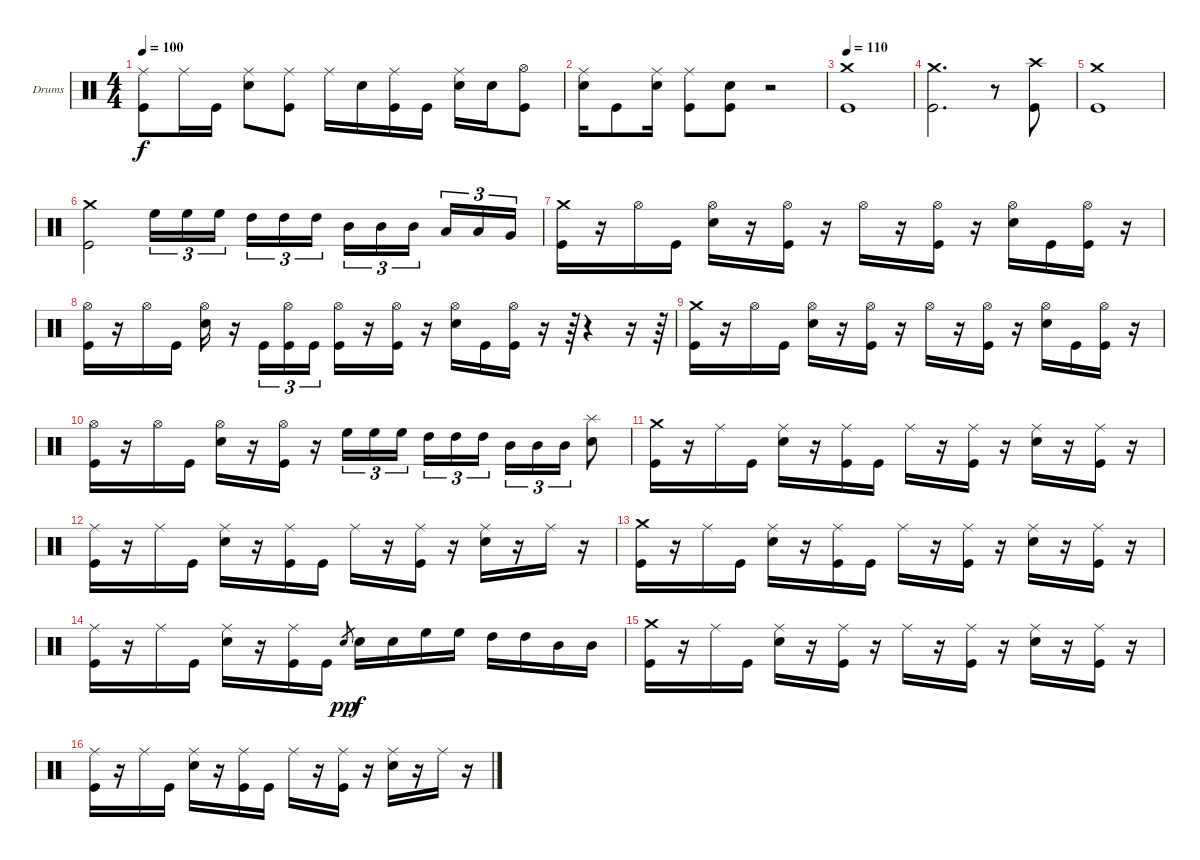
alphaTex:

\bracketExtendMode groupsimilarinstruments
\firstSystemTrackNameOrientation horizontal
\otherSystemsTrackNameOrientation horizontal
\track ("Nick Menza" "Drums") {instrument percussion}
\staff {score}
\articulation defaults
\ts (4 4)
\tempo 100
\clef neutral
\ks c
("Ride (middle)" "Kick (hit)").8{dy f} "Ride (middle)".16 "Kick (hit)".16 ("Ride (middle)" "Snare (hit) 2").8 ("Ride (middle)" "Kick (hit)").8 "Ride (middle)".16 "Snare (hit) 2".16 ("Ride (middle)" "Kick (hit)").16 "Kick (hit)".16 ("Ride (middle)" "Snare (hit) 2").16 "Snare (hit) 2".16 ("Hi-Hat (open)" "Kick (hit)").8 |
("Ride (middle)" "Snare (hit) 2").16 "Kick (hit)".8 ("Ride (middle)" "Snare (hit) 2").16 ("Ride (middle)" "Kick (hit)").8 ("Snare (hit) 2" "Kick (hit)").8 r.2 |
\tempo 110
("Crash medium (hit)" "Kick (hit)").1 |
("Crash medium (hit)" "Kick (hit)").2{d} r.8 ("Crash high (hit)" "Kick (hit)").8 |
("Crash medium (hit)" "Kick (hit)").1 |
("Crash medium (hit)" "Kick (hit)").2 "High Floor Tom (hit)".16{tu (3 2)} "High Floor Tom (hit)".16{tu (3 2)} "High Floor Tom (hit)".16{tu (3 2)} "High Tom (hit)".16{tu (3 2)} "High Tom (hit)".16{tu (3 2)} "High Tom (hit)".16{tu (3 2)} "Mid Tom (hit)".16{tu (3 2)} "Mid Tom (hit)".16{tu (3 2)} "Mid Tom (hit)".16{tu (3 2)} "Low Tom (hit)".16{tu (3 2)} "Low Tom (hit)".16{tu (3 2)} "Very Low Tom (hit)".16{tu (3 2)} |
("Crash medium (hit)" "Kick (hit)").16 r.16 "Hi-Hat (open)".16 "Kick (hit)".16 ("Hi-Hat (open)" "Snare (hit) 2").16 r.16 ("Hi-Hat (open)" "Kick (hit)").16 r.16 "Hi-Hat (open)".16 r.16 ("Hi-Hat (open)" "Kick (hit)").16 r.16 ("Hi-Hat (open)" "Snare (hit) 2").16 "Kick (hit)".16 ("Hi-Hat (open)" "Kick (hit)").16 r.16 |
("Hi-Hat (open)" "Kick (hit)").16 r.16 "Hi-Hat (open)".16 "Kick (hit)".16 ("Hi-Hat (open)" "Snare (hit) 2").16 r.16 "Kick (hit)".16{tu (3 2)} ("Hi-Hat (open)" "Kick (hit)").16{tu (3 2)} "Kick (hit)".16{tu (3 2)} ("Hi-Hat (open)" "Kick (hit)").16 r.16 ("Hi-Hat (open)" "Kick (hit)").16 r.16 ("Hi-Hat (open)" "Snare (hit) 2").16 "Kick (hit)".16 ("Hi-Hat (open)" "Kick (hit)").16 r.16 r.64 r.4 r.16 r.64 |
("Crash medium (hit)" "Kick (hit)").16 r.16 "Hi-Hat (open)".16 "Kick (hit)".16 ("Hi-Hat (open)" "Snare (hit) 2").16 r.16 ("Hi-Hat (open)" "Kick (hit)").16 r.16 "Hi-Hat (open)".16 r.16 ("Hi-Hat (open)" "Kick (hit)").16 r.16 ("Hi-Hat (open)" "Snare (hit) 2").16 "Kick (hit)".16 ("Hi-Hat (open)" "Kick (hit)").16 r.16 |
("Hi-Hat (open)" "Kick (hit)").16 r.16 "Hi-Hat (open)".16 "Kick (hit)".16 ("Hi-Hat (open)" "Snare (hit) 2").16 r.16 ("Hi-Hat (open)" "Kick (hit)").16 r.16 "High Floor Tom (hit)".16{tu (3 2)} "High Floor Tom (hit)".16{tu (3 2)} "High Floor Tom (hit)".16{tu (3 2)} "High Tom (hit)".16{tu (3 2)} "High Tom (hit)".16{tu (3 2)} "High Tom (hit)".16{tu (3 2)} "Mid Tom (hit)".16{tu (3 2)} "Mid Tom (hit)".16{tu (3 2)} "Mid Tom (hit)".16{tu (3 2)} ("Splash (hit)" "Snare (hit) 2").8 |
("Crash medium (hit)" "Kick (hit)").16 r.16 "Ride (middle)".16 "Kick (hit)".16 ("Ride (middle)" "Snare (hit) 2").16 r.16 ("Ride (middle)" "Kick (hit)").16 "Kick (hit)".16 "Ride (middle)".16 r.16 ("Ride (middle)" "Kick (hit)").16 r.16 ("Ride (middle)" "Snare (hit) 2").16 r.16 ("Ride (middle)" "Kick (hit)").16 r.16 |
("Ride (middle)" "Kick (hit)").16 r.16 "Ride (middle)".16 "Kick (hit)".16 ("Ride (middle)" "Snare (hit) 2").16 r.16 ("Ride (middle)" "Kick (hit)").16 "Kick (hit)".16 "Ride (middle)".16 r.16 ("Ride (middle)" "Kick (hit)").16 r.16 ("Ride (middle)" "Snare (hit) 2").16 r.16 "Ride (middle)".16 r.16 |
("Crash medium (hit)" "Kick (hit)").16 r.16 "Ride (middle)".16 "Kick (hit)".16 ("Ride (middle)" "Snare (hit) 2").16 r.16 ("Ride (middle)" "Kick (hit)").16 "Kick (hit)".16 "Ride (middle)".16 r.16 ("Ride (middle)" "Kick (hit)").16 r.16 ("Ride (middle)" "Snare (hit) 2").16 r.16 ("Ride (middle)" "Kick (hit)").16 r.16 |
("Ride (middle)" "Kick (hit)").16 r.16 "Ride (middle)".16 "Kick (hit)".16 ("Ride (middle)" "Snare (hit) 2").16 r.16 ("Ride (middle)" "Kick (hit)").16 "Kick (hit)".16 "Snare (hit) 2".8{gr dy pp} "Snare (hit) 2".16{dy f} "Snare (hit) 2".16 "High Floor Tom (hit)".16 "High Floor Tom (hit)".16 "High Tom (hit)".16 "High Tom (hit)".16 "Mid Tom (hit)".16 "Mid Tom (hit)".16 |
("Crash medium (hit)" "Kick (hit)").16 r.16 "Ride (middle)".16 "Kick (hit)".16 ("Ride (middle)" "Snare (hit) 2").16 r.16 ("Ride (middle)" "Kick (hit)").16 r.16 "Ride (middle)".16 r.16 ("Ride (middle)" "Kick (hit)").16 r.16 ("Ride (middle)" "Snare (hit) 2").16 r.16 ("Ride (middle)" "Kick (hit)").16 r.16 |
("Ride (middle)" "Kick (hit)").16 r.16 "Ride (middle)".16 "Kick (hit)".16 ("Ride (middle)" "Snare (hit) 2").16 r.16 ("Ride (middle)" "Kick (hit)").16 "Kick (hit)".16 "Ride (middle)".16 r.16 ("Ride (middle)" "Kick (hit)").16 r.16 ("Ride (middle)" "Snare (hit) 2").16 r.16 "Ride (middle)".16 r.16
